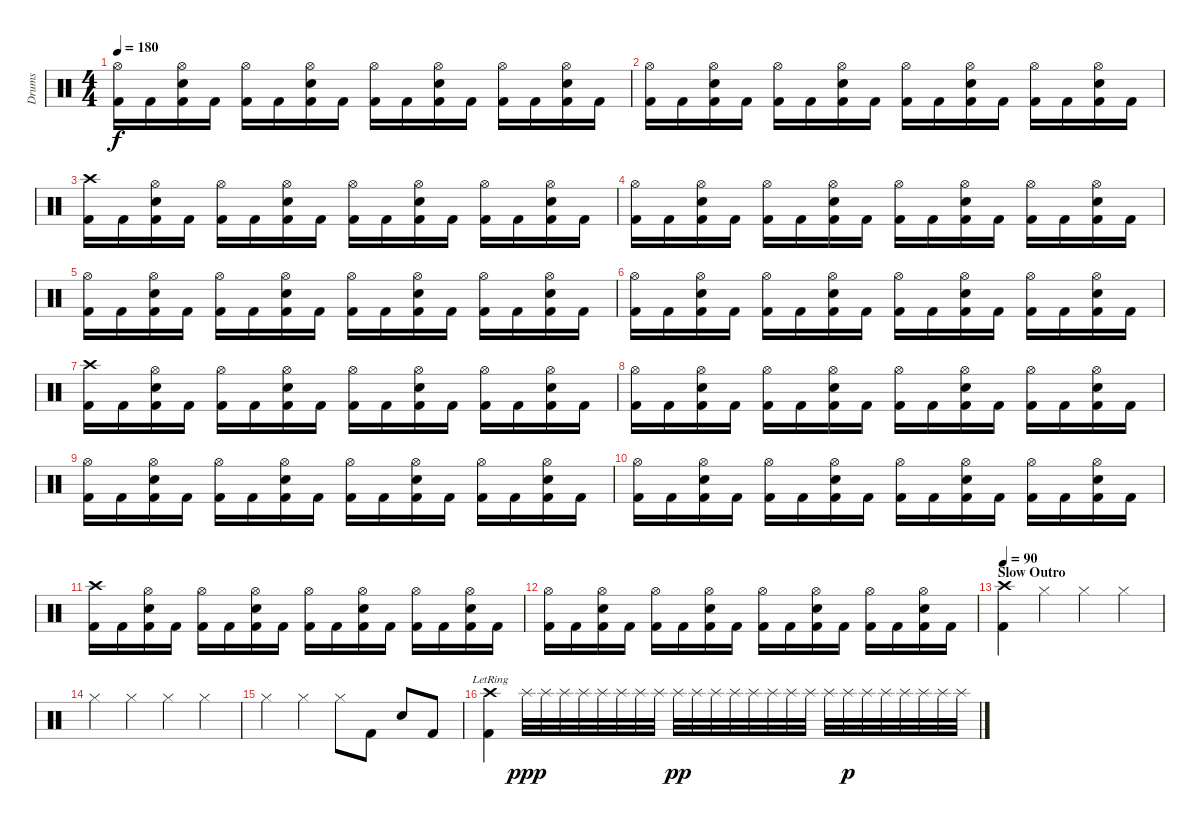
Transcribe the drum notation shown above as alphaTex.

\track ("Drums" "Drums") {instrument percussion}
\staff {score}
\articulation defaults
\ts (4 4)
\tempo 180
\clef neutral
\ks c
("Hi-Hat (open)" "Kick (hit) 2").16{dy f} "Kick (hit) 2".16 ("Hi-Hat (open)" "Snare (hit) 2" "Kick (hit) 2").16 "Kick (hit) 2".16 ("Hi-Hat (open)" "Kick (hit) 2").16 "Kick (hit) 2".16 ("Hi-Hat (open)" "Snare (hit) 2" "Kick (hit) 2").16 "Kick (hit) 2".16 ("Hi-Hat (open)" "Kick (hit) 2").16 "Kick (hit) 2".16 ("Hi-Hat (open)" "Snare (hit) 2" "Kick (hit) 2").16 "Kick (hit) 2".16 ("Hi-Hat (open)" "Kick (hit) 2").16 "Kick (hit) 2".16 ("Hi-Hat (open)" "Snare (hit) 2" "Kick (hit) 2").16 "Kick (hit) 2".16 |
("Hi-Hat (open)" "Kick (hit) 2").16 "Kick (hit) 2".16 ("Hi-Hat (open)" "Snare (hit) 2" "Kick (hit) 2").16 "Kick (hit) 2".16 ("Hi-Hat (open)" "Kick (hit) 2").16 "Kick (hit) 2".16 ("Hi-Hat (open)" "Snare (hit) 2" "Kick (hit) 2").16 "Kick (hit) 2".16 ("Hi-Hat (open)" "Kick (hit) 2").16 "Kick (hit) 2".16 ("Hi-Hat (open)" "Snare (hit) 2" "Kick (hit) 2").16 "Kick (hit) 2".16 ("Hi-Hat (open)" "Kick (hit) 2").16 "Kick (hit) 2".16 ("Hi-Hat (open)" "Snare (hit) 2" "Kick (hit) 2").16 "Kick (hit) 2".16 |
("Crash high (hit)" "Kick (hit) 2").16 "Kick (hit) 2".16 ("Hi-Hat (open)" "Snare (hit) 2" "Kick (hit) 2").16 "Kick (hit) 2".16 ("Hi-Hat (open)" "Kick (hit) 2").16 "Kick (hit) 2".16 ("Hi-Hat (open)" "Snare (hit) 2" "Kick (hit) 2").16 "Kick (hit) 2".16 ("Hi-Hat (open)" "Kick (hit) 2").16 "Kick (hit) 2".16 ("Hi-Hat (open)" "Snare (hit) 2" "Kick (hit) 2").16 "Kick (hit) 2".16 ("Hi-Hat (open)" "Kick (hit) 2").16 "Kick (hit) 2".16 ("Hi-Hat (open)" "Snare (hit) 2" "Kick (hit) 2").16 "Kick (hit) 2".16 |
("Hi-Hat (open)" "Kick (hit) 2").16 "Kick (hit) 2".16 ("Hi-Hat (open)" "Snare (hit) 2" "Kick (hit) 2").16 "Kick (hit) 2".16 ("Hi-Hat (open)" "Kick (hit) 2").16 "Kick (hit) 2".16 ("Hi-Hat (open)" "Snare (hit) 2" "Kick (hit) 2").16 "Kick (hit) 2".16 ("Hi-Hat (open)" "Kick (hit) 2").16 "Kick (hit) 2".16 ("Hi-Hat (open)" "Snare (hit) 2" "Kick (hit) 2").16 "Kick (hit) 2".16 ("Hi-Hat (open)" "Kick (hit) 2").16 "Kick (hit) 2".16 ("Hi-Hat (open)" "Snare (hit) 2" "Kick (hit) 2").16 "Kick (hit) 2".16 |
("Hi-Hat (open)" "Kick (hit) 2").16 "Kick (hit) 2".16 ("Hi-Hat (open)" "Snare (hit) 2" "Kick (hit) 2").16 "Kick (hit) 2".16 ("Hi-Hat (open)" "Kick (hit) 2").16 "Kick (hit) 2".16 ("Hi-Hat (open)" "Snare (hit) 2" "Kick (hit) 2").16 "Kick (hit) 2".16 ("Hi-Hat (open)" "Kick (hit) 2").16 "Kick (hit) 2".16 ("Hi-Hat (open)" "Snare (hit) 2" "Kick (hit) 2").16 "Kick (hit) 2".16 ("Hi-Hat (open)" "Kick (hit) 2").16 "Kick (hit) 2".16 ("Hi-Hat (open)" "Snare (hit) 2" "Kick (hit) 2").16 "Kick (hit) 2".16 |
("Hi-Hat (open)" "Kick (hit) 2").16 "Kick (hit) 2".16 ("Hi-Hat (open)" "Snare (hit) 2" "Kick (hit) 2").16 "Kick (hit) 2".16 ("Hi-Hat (open)" "Kick (hit) 2").16 "Kick (hit) 2".16 ("Hi-Hat (open)" "Snare (hit) 2" "Kick (hit) 2").16 "Kick (hit) 2".16 ("Hi-Hat (open)" "Kick (hit) 2").16 "Kick (hit) 2".16 ("Hi-Hat (open)" "Snare (hit) 2" "Kick (hit) 2").16 "Kick (hit) 2".16 ("Hi-Hat (open)" "Kick (hit) 2").16 "Kick (hit) 2".16 ("Hi-Hat (open)" "Snare (hit) 2" "Kick (hit) 2").16 "Kick (hit) 2".16 |
("Crash high (hit)" "Kick (hit) 2").16 "Kick (hit) 2".16 ("Hi-Hat (open)" "Snare (hit) 2" "Kick (hit) 2").16 "Kick (hit) 2".16 ("Hi-Hat (open)" "Kick (hit) 2").16 "Kick (hit) 2".16 ("Hi-Hat (open)" "Snare (hit) 2" "Kick (hit) 2").16 "Kick (hit) 2".16 ("Hi-Hat (open)" "Kick (hit) 2").16 "Kick (hit) 2".16 ("Hi-Hat (open)" "Snare (hit) 2" "Kick (hit) 2").16 "Kick (hit) 2".16 ("Hi-Hat (open)" "Kick (hit) 2").16 "Kick (hit) 2".16 ("Hi-Hat (open)" "Snare (hit) 2" "Kick (hit) 2").16 "Kick (hit) 2".16 |
("Hi-Hat (open)" "Kick (hit) 2").16 "Kick (hit) 2".16 ("Hi-Hat (open)" "Snare (hit) 2" "Kick (hit) 2").16 "Kick (hit) 2".16 ("Hi-Hat (open)" "Kick (hit) 2").16 "Kick (hit) 2".16 ("Hi-Hat (open)" "Snare (hit) 2" "Kick (hit) 2").16 "Kick (hit) 2".16 ("Hi-Hat (open)" "Kick (hit) 2").16 "Kick (hit) 2".16 ("Hi-Hat (open)" "Snare (hit) 2" "Kick (hit) 2").16 "Kick (hit) 2".16 ("Hi-Hat (open)" "Kick (hit) 2").16 "Kick (hit) 2".16 ("Hi-Hat (open)" "Snare (hit) 2" "Kick (hit) 2").16 "Kick (hit) 2".16 |
("Hi-Hat (open)" "Kick (hit) 2").16 "Kick (hit) 2".16 ("Hi-Hat (open)" "Snare (hit) 2" "Kick (hit) 2").16 "Kick (hit) 2".16 ("Hi-Hat (open)" "Kick (hit) 2").16 "Kick (hit) 2".16 ("Hi-Hat (open)" "Snare (hit) 2" "Kick (hit) 2").16 "Kick (hit) 2".16 ("Hi-Hat (open)" "Kick (hit) 2").16 "Kick (hit) 2".16 ("Hi-Hat (open)" "Snare (hit) 2" "Kick (hit) 2").16 "Kick (hit) 2".16 ("Hi-Hat (open)" "Kick (hit) 2").16 "Kick (hit) 2".16 ("Hi-Hat (open)" "Snare (hit) 2" "Kick (hit) 2").16 "Kick (hit) 2".16 |
("Hi-Hat (open)" "Kick (hit) 2").16 "Kick (hit) 2".16 ("Hi-Hat (open)" "Snare (hit) 2" "Kick (hit) 2").16 "Kick (hit) 2".16 ("Hi-Hat (open)" "Kick (hit) 2").16 "Kick (hit) 2".16 ("Hi-Hat (open)" "Snare (hit) 2" "Kick (hit) 2").16 "Kick (hit) 2".16 ("Hi-Hat (open)" "Kick (hit) 2").16 "Kick (hit) 2".16 ("Hi-Hat (open)" "Snare (hit) 2" "Kick (hit) 2").16 "Kick (hit) 2".16 ("Hi-Hat (open)" "Kick (hit) 2").16 "Kick (hit) 2".16 ("Hi-Hat (open)" "Snare (hit) 2" "Kick (hit) 2").16 "Kick (hit) 2".16 |
("Crash high (hit)" "Kick (hit) 2").16 "Kick (hit) 2".16 ("Hi-Hat (open)" "Snare (hit) 2" "Kick (hit) 2").16 "Kick (hit) 2".16 ("Hi-Hat (open)" "Kick (hit) 2").16 "Kick (hit) 2".16 ("Hi-Hat (open)" "Snare (hit) 2" "Kick (hit) 2").16 "Kick (hit) 2".16 ("Hi-Hat (open)" "Kick (hit) 2").16 "Kick (hit) 2".16 ("Hi-Hat (open)" "Snare (hit) 2" "Kick (hit) 2").16 "Kick (hit) 2".16 ("Hi-Hat (open)" "Kick (hit) 2").16 "Kick (hit) 2".16 ("Hi-Hat (open)" "Snare (hit) 2" "Kick (hit) 2").16 "Kick (hit) 2".16 |
("Hi-Hat (open)" "Kick (hit) 2").16 "Kick (hit) 2".16 ("Hi-Hat (open)" "Snare (hit) 2" "Kick (hit) 2").16 "Kick (hit) 2".16 ("Hi-Hat (open)" "Kick (hit) 2").16 "Kick (hit) 2".16 ("Hi-Hat (open)" "Snare (hit) 2" "Kick (hit) 2").16 "Kick (hit) 2".16 ("Hi-Hat (open)" "Kick (hit) 2").16 "Kick (hit) 2".16 ("Hi-Hat (open)" "Snare (hit) 2" "Kick (hit) 2").16 "Kick (hit) 2".16 ("Hi-Hat (open)" "Kick (hit) 2").16 "Kick (hit) 2".16 ("Hi-Hat (open)" "Snare (hit) 2" "Kick (hit) 2").16 "Kick (hit) 2".16 |
\section ("" "Slow Outro")
\tempo 90
("Crash high (hit)" "Kick (hit) 2").4 "Hi-Hat (closed)".4 "Hi-Hat (closed)".4 "Hi-Hat (closed)".4 |
"Hi-Hat (closed)".4 "Hi-Hat (closed)".4 "Hi-Hat (closed)".4 "Hi-Hat (closed)".4 |
"Hi-Hat (closed)".4 "Hi-Hat (closed)".4 "Hi-Hat (closed)".8 "Kick (hit) 2".8 "Snare (hit) 2".8 "Kick (hit) 2".8 |
("Crash high (hit)"{lr} "Kick (hit) 2").4 "Splash (hit)".32{dy ppp} "Splash (hit)".32 "Splash (hit)".32 "Splash (hit)".32 "Splash (hit)".32 "Splash (hit)".32 "Splash (hit)".32 "Splash (hit)".32 "Splash (hit)".32{dy pp} "Splash (hit)".32 "Splash (hit)".32 "Splash (hit)".32 "Splash (hit)".32 "Splash (hit)".32 "Splash (hit)".32 "Splash (hit)".32 "Splash (hit)".32 "Splash (hit)".32{dy p} "Splash (hit)".32 "Splash (hit)".32 "Splash (hit)".32 "Splash (hit)".32 "Splash (hit)".32 "Splash (hit)".32
